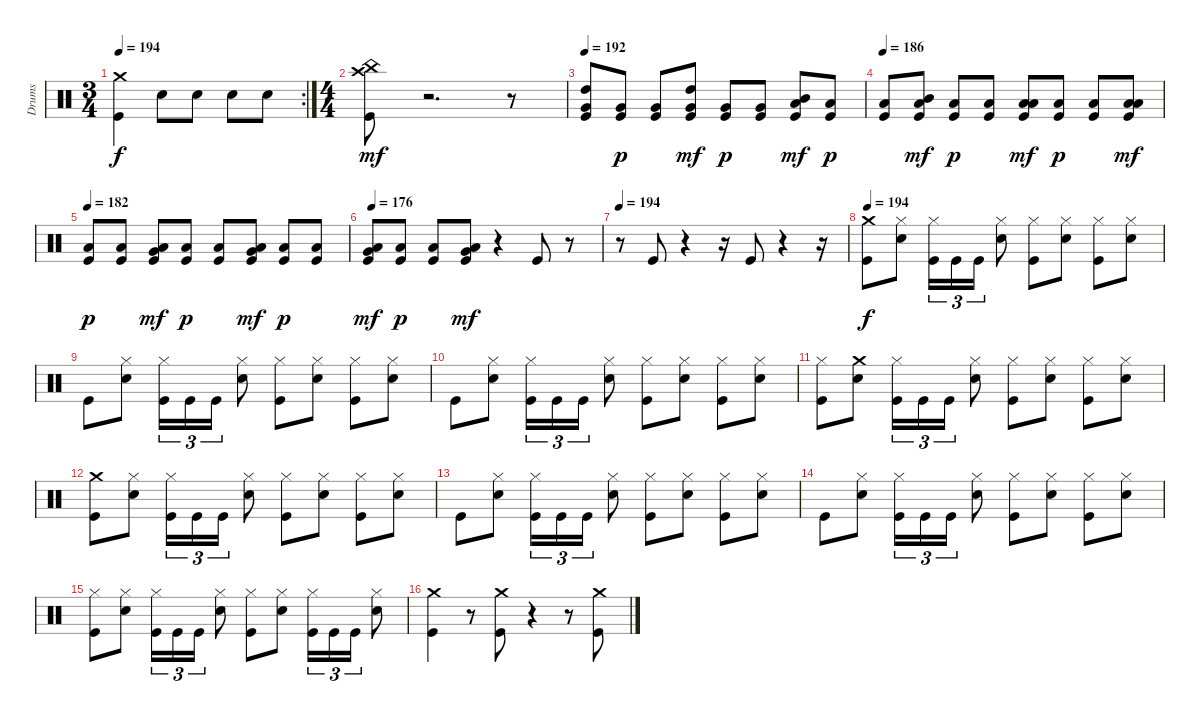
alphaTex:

\track ("Drums" "Drums") {instrument percussion}
\staff {score}
\articulation defaults
\rc 2
\ts (3 4)
\tempo 194
\clef neutral
\ks c
("Crash medium (hit)" "Kick (hit)").4{dy f} "Snare (hit) 2".8 "Snare (hit) 2".8 "Snare (hit) 2".8 "Snare (hit) 2".8 |
\ts (4 4)
("China (hit)" "Crash high (hit)" "Kick (hit)").8{dy mf} r.2{d} r.8 |
\tempo 192
("Kick (hit)" "Very Low Tom (hit)" "High Tom (hit)").8 ("Very Low Tom (hit)" "Kick (hit)").8{dy p} ("Very Low Tom (hit)" "Kick (hit)").8 ("Kick (hit)" "Very Low Tom (hit)" "High Tom (hit)").8{dy mf} ("Very Low Tom (hit)" "Kick (hit)").8{dy p} ("Very Low Tom (hit)" "Kick (hit)").8 ("Low Floor Tom (hit)" "Mid Tom (hit)" "Kick (hit)").8{dy mf} ("Low Floor Tom (hit)" "Kick (hit)").8{dy p} |
\tempo 186
("Low Floor Tom (hit)" "Kick (hit)").8 ("Low Floor Tom (hit)" "Mid Tom (hit)" "Kick (hit)").8{dy mf} ("Low Floor Tom (hit)" "Kick (hit)").8{dy p} ("Low Floor Tom (hit)" "Kick (hit)").8 ("Low Floor Tom (hit)" "Low Tom (hit)" "Kick (hit)").8{dy mf} ("Low Floor Tom (hit)" "Kick (hit)").8{dy p} ("Low Floor Tom (hit)" "Kick (hit)").8 ("Low Floor Tom (hit)" "Low Tom (hit)" "Kick (hit)").8{dy mf} |
\tempo 182
("Low Floor Tom (hit)" "Kick (hit)").8{dy p} ("Low Floor Tom (hit)" "Kick (hit)").8 ("Kick (hit)" "Low Floor Tom (hit)" "Very Low Tom (hit)").8{dy mf} ("Low Floor Tom (hit)" "Kick (hit)").8{dy p} ("Low Floor Tom (hit)" "Kick (hit)").8 ("Kick (hit)" "Low Floor Tom (hit)" "Very Low Tom (hit)").8{dy mf} ("Low Floor Tom (hit)" "Kick (hit)").8{dy p} ("Low Floor Tom (hit)" "Kick (hit)").8 |
\tempo 176
("Very Low Tom (hit)" "Kick (hit)" "Low Floor Tom (hit)").8{dy mf} ("Low Floor Tom (hit)" "Kick (hit)").8{dy p} ("Low Floor Tom (hit)" "Kick (hit)").8 ("Very Low Tom (hit)" "Kick (hit)" "Low Floor Tom (hit)").8{dy mf} r.4 "Kick (hit)".8 r.8 |
\tempo 194
r.8 "Kick (hit)".8 r.4 r.16 "Kick (hit)".8 r.4 r.16 |
\tempo 194
("Crash medium (hit)" "Kick (hit)").8{dy f} ("Hi-Hat (closed)" "Snare (hit) 2").8 ("Hi-Hat (closed)" "Kick (hit)").16{tu (3 2)} "Kick (hit)".16{tu (3 2)} "Kick (hit)".16{tu (3 2)} ("Hi-Hat (closed)" "Snare (hit) 2").8 ("Hi-Hat (closed)" "Kick (hit)").8 ("Hi-Hat (closed)" "Snare (hit) 2").8 ("Hi-Hat (closed)" "Kick (hit)").8 ("Hi-Hat (closed)" "Snare (hit) 2").8 |
"Kick (hit)".8 ("Hi-Hat (closed)" "Snare (hit) 2").8 ("Hi-Hat (closed)" "Kick (hit)").16{tu (3 2)} "Kick (hit)".16{tu (3 2)} "Kick (hit)".16{tu (3 2)} ("Hi-Hat (closed)" "Snare (hit) 2").8 ("Hi-Hat (closed)" "Kick (hit)").8 ("Hi-Hat (closed)" "Snare (hit) 2").8 ("Hi-Hat (closed)" "Kick (hit)").8 ("Hi-Hat (closed)" "Snare (hit) 2").8 |
"Kick (hit)".8 ("Hi-Hat (closed)" "Snare (hit) 2").8 ("Hi-Hat (closed)" "Kick (hit)").16{tu (3 2)} "Kick (hit)".16{tu (3 2)} "Kick (hit)".16{tu (3 2)} ("Hi-Hat (closed)" "Snare (hit) 2").8 ("Hi-Hat (closed)" "Kick (hit)").8 ("Hi-Hat (closed)" "Snare (hit) 2").8 ("Hi-Hat (closed)" "Kick (hit)").8 ("Hi-Hat (closed)" "Snare (hit) 2").8 |
("Hi-Hat (closed)" "Kick (hit)").8 ("Crash medium (hit)" "Snare (hit) 2").8 ("Hi-Hat (closed)" "Kick (hit)").16{tu (3 2)} "Kick (hit)".16{tu (3 2)} "Kick (hit)".16{tu (3 2)} ("Hi-Hat (closed)" "Snare (hit) 2").8 ("Hi-Hat (closed)" "Kick (hit)").8 ("Hi-Hat (closed)" "Snare (hit) 2").8 ("Hi-Hat (closed)" "Kick (hit)").8 ("Hi-Hat (closed)" "Snare (hit) 2").8 |
("Crash medium (hit)" "Kick (hit)").8 ("Hi-Hat (closed)" "Snare (hit) 2").8 ("Hi-Hat (closed)" "Kick (hit)").16{tu (3 2)} "Kick (hit)".16{tu (3 2)} "Kick (hit)".16{tu (3 2)} ("Hi-Hat (closed)" "Snare (hit) 2").8 ("Hi-Hat (closed)" "Kick (hit)").8 ("Hi-Hat (closed)" "Snare (hit) 2").8 ("Hi-Hat (closed)" "Kick (hit)").8 ("Hi-Hat (closed)" "Snare (hit) 2").8 |
"Kick (hit)".8 ("Hi-Hat (closed)" "Snare (hit) 2").8 ("Hi-Hat (closed)" "Kick (hit)").16{tu (3 2)} "Kick (hit)".16{tu (3 2)} "Kick (hit)".16{tu (3 2)} ("Hi-Hat (closed)" "Snare (hit) 2").8 ("Hi-Hat (closed)" "Kick (hit)").8 ("Hi-Hat (closed)" "Snare (hit) 2").8 ("Hi-Hat (closed)" "Kick (hit)").8 ("Hi-Hat (closed)" "Snare (hit) 2").8 |
"Kick (hit)".8 ("Hi-Hat (closed)" "Snare (hit) 2").8 ("Hi-Hat (closed)" "Kick (hit)").16{tu (3 2)} "Kick (hit)".16{tu (3 2)} "Kick (hit)".16{tu (3 2)} ("Hi-Hat (closed)" "Snare (hit) 2").8 ("Hi-Hat (closed)" "Kick (hit)").8 ("Hi-Hat (closed)" "Snare (hit) 2").8 ("Hi-Hat (closed)" "Kick (hit)").8 ("Hi-Hat (closed)" "Snare (hit) 2").8 |
("Hi-Hat (closed)" "Kick (hit)").8 ("Hi-Hat (closed)" "Snare (hit) 2").8 ("Hi-Hat (closed)" "Kick (hit)").16{tu (3 2)} "Kick (hit)".16{tu (3 2)} "Kick (hit)".16{tu (3 2)} ("Hi-Hat (closed)" "Snare (hit) 2").8 ("Hi-Hat (closed)" "Kick (hit)").8 ("Hi-Hat (closed)" "Snare (hit) 2").8 ("Hi-Hat (closed)" "Kick (hit)").16{tu (3 2)} "Kick (hit)".16{tu (3 2)} "Kick (hit)".16{tu (3 2)} ("Hi-Hat (closed)" "Snare (hit) 2").8 |
("Crash medium (hit)" "Kick (hit)").4 r.8 ("Crash medium (hit)" "Kick (hit)").8 r.4 r.8 ("Crash medium (hit)" "Kick (hit)").8
